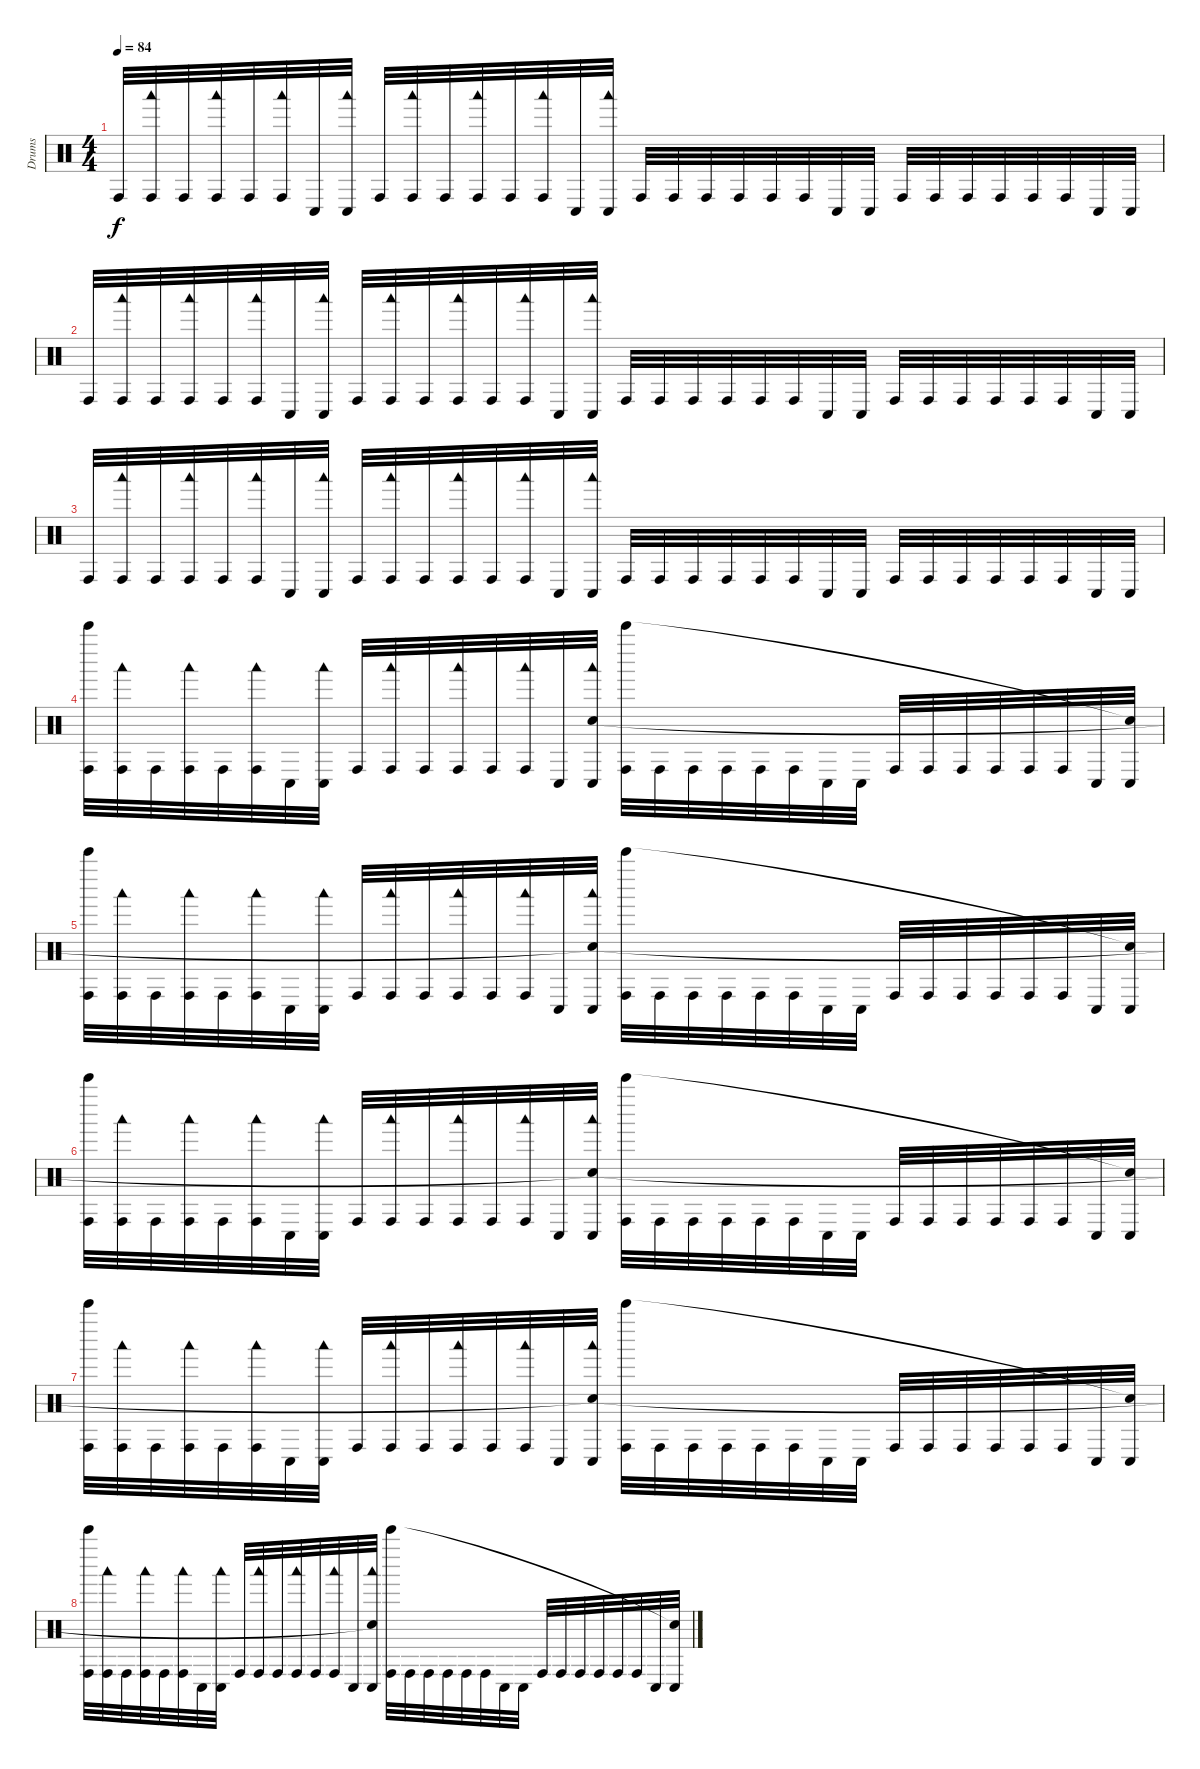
\track ("Drums" "Drums") {instrument percussion}
\staff {score}
\articulation defaults
\ts (4 4)
\tempo 84
\clef neutral
\ks c "Conga high (hit)".32{dy f volume 9}
("Conga high (hit)" "Woodblock low (hit)").32 "Conga high (hit)".32 ("Conga high (hit)" "Woodblock low (hit)").32 "Conga high (hit)".32 ("Conga high (hit)" "Woodblock low (hit)").32 "Conga low (hit)".32 ("Conga low (hit)" "Woodblock low (hit)").32 "Conga high (hit)".32 ("Conga high (hit)" "Woodblock low (hit)").32 "Conga high (hit)".32 ("Conga high (hit)" "Woodblock low (hit)").32 "Conga high (hit)".32 ("Conga high (hit)" "Woodblock low (hit)").32 "Conga low (hit)".32 ("Conga low (hit)" "Woodblock low (hit)").32 "Conga high (hit)".32 "Conga high (hit)".32 "Conga high (hit)".32 "Conga high (hit)".32 "Conga high (hit)".32 "Conga high (hit)".32 "Conga low (hit)".32 "Conga low (hit)".32 "Conga high (hit)".32 "Conga high (hit)".32 "Conga high (hit)".32 "Conga high (hit)".32 "Conga high (hit)".32 "Conga high (hit)".32 "Conga low (hit)".32 "Conga low (hit)".32 |
"Conga high (hit)".32 ("Conga high (hit)" "Woodblock low (hit)").32 "Conga high (hit)".32 ("Conga high (hit)" "Woodblock low (hit)").32 "Conga high (hit)".32 ("Conga high (hit)" "Woodblock low (hit)").32 "Conga low (hit)".32 ("Conga low (hit)" "Woodblock low (hit)").32 "Conga high (hit)".32 ("Conga high (hit)" "Woodblock low (hit)").32 "Conga high (hit)".32 ("Conga high (hit)" "Woodblock low (hit)").32 "Conga high (hit)".32 ("Conga high (hit)" "Woodblock low (hit)").32 "Conga low (hit)".32 ("Conga low (hit)" "Woodblock low (hit)").32 "Conga high (hit)".32 "Conga high (hit)".32 "Conga high (hit)".32 "Conga high (hit)".32 "Conga high (hit)".32 "Conga high (hit)".32 "Conga low (hit)".32 "Conga low (hit)".32 "Conga high (hit)".32 "Conga high (hit)".32 "Conga high (hit)".32 "Conga high (hit)".32 "Conga high (hit)".32 "Conga high (hit)".32 "Conga low (hit)".32 "Conga low (hit)".32 |
"Conga high (hit)".32 ("Conga high (hit)" "Woodblock low (hit)").32 "Conga high (hit)".32 ("Conga high (hit)" "Woodblock low (hit)").32 "Conga high (hit)".32 ("Conga high (hit)" "Woodblock low (hit)").32 "Conga low (hit)".32 ("Conga low (hit)" "Woodblock low (hit)").32 "Conga high (hit)".32 ("Conga high (hit)" "Woodblock low (hit)").32 "Conga high (hit)".32 ("Conga high (hit)" "Woodblock low (hit)").32 "Conga high (hit)".32 ("Conga high (hit)" "Woodblock low (hit)").32 "Conga low (hit)".32 ("Conga low (hit)" "Woodblock low (hit)").32 "Conga high (hit)".32 "Conga high (hit)".32 "Conga high (hit)".32 "Conga high (hit)".32 "Conga high (hit)".32 "Conga high (hit)".32 "Conga low (hit)".32 "Conga low (hit)".32 "Conga high (hit)".32 "Conga high (hit)".32 "Conga high (hit)".32 "Conga high (hit)".32 "Conga high (hit)".32 "Conga high (hit)".32 "Conga low (hit)".32 "Conga low (hit)".32 |
("Conga high (hit)" "Bell Tree (hit)").32 ("Conga high (hit)" "Woodblock low (hit)").32 "Conga high (hit)".32 ("Conga high (hit)" "Woodblock low (hit)").32 "Conga high (hit)".32 ("Conga high (hit)" "Woodblock low (hit)").32 "Conga low (hit)".32 ("Conga low (hit)" "Woodblock low (hit)").32 "Conga high (hit)".32 ("Conga high (hit)" "Woodblock low (hit)").32 "Conga high (hit)".32 ("Conga high (hit)" "Woodblock low (hit)").32 "Conga high (hit)".32 ("Conga high (hit)" "Woodblock low (hit)").32 "Conga low (hit)".32 ("Conga low (hit)" "Woodblock low (hit)" "Snare (hit)").32 ("Conga high (hit)" "Bell Tree (hit)").32 "Conga high (hit)".32 "Conga high (hit)".32 "Conga high (hit)".32 "Conga high (hit)".32 "Conga high (hit)".32 "Conga low (hit)".32 "Conga low (hit)".32 "Conga high (hit)".32 "Conga high (hit)".32 "Conga high (hit)".32 "Conga high (hit)".32 "Conga high (hit)".32 "Conga high (hit)".32 "Conga low (hit)".32 ("Conga low (hit)" "Snare (hit)"{t}).32 |
("Conga high (hit)" "Bell Tree (hit)").32 ("Conga high (hit)" "Woodblock low (hit)").32 "Conga high (hit)".32 ("Conga high (hit)" "Woodblock low (hit)").32 "Conga high (hit)".32 ("Conga high (hit)" "Woodblock low (hit)").32 "Conga low (hit)".32 ("Conga low (hit)" "Woodblock low (hit)").32 "Conga high (hit)".32 ("Conga high (hit)" "Woodblock low (hit)").32 "Conga high (hit)".32 ("Conga high (hit)" "Woodblock low (hit)").32 "Conga high (hit)".32 ("Conga high (hit)" "Woodblock low (hit)").32 "Conga low (hit)".32 ("Conga low (hit)" "Woodblock low (hit)" "Snare (hit)"{t}).32 ("Conga high (hit)" "Bell Tree (hit)").32 "Conga high (hit)".32 "Conga high (hit)".32 "Conga high (hit)".32 "Conga high (hit)".32 "Conga high (hit)".32 "Conga low (hit)".32 "Conga low (hit)".32 "Conga high (hit)".32 "Conga high (hit)".32 "Conga high (hit)".32 "Conga high (hit)".32 "Conga high (hit)".32 "Conga high (hit)".32 "Conga low (hit)".32 ("Conga low (hit)" "Snare (hit)"{t}).32 |
("Conga high (hit)" "Bell Tree (hit)").32 ("Conga high (hit)" "Woodblock low (hit)").32 "Conga high (hit)".32 ("Conga high (hit)" "Woodblock low (hit)").32 "Conga high (hit)".32 ("Conga high (hit)" "Woodblock low (hit)").32 "Conga low (hit)".32 ("Conga low (hit)" "Woodblock low (hit)").32 "Conga high (hit)".32 ("Conga high (hit)" "Woodblock low (hit)").32 "Conga high (hit)".32 ("Conga high (hit)" "Woodblock low (hit)").32 "Conga high (hit)".32 ("Conga high (hit)" "Woodblock low (hit)").32 "Conga low (hit)".32 ("Conga low (hit)" "Woodblock low (hit)" "Snare (hit)"{t}).32 ("Conga high (hit)" "Bell Tree (hit)").32 "Conga high (hit)".32 "Conga high (hit)".32 "Conga high (hit)".32 "Conga high (hit)".32 "Conga high (hit)".32 "Conga low (hit)".32 "Conga low (hit)".32 "Conga high (hit)".32 "Conga high (hit)".32 "Conga high (hit)".32 "Conga high (hit)".32 "Conga high (hit)".32 "Conga high (hit)".32 "Conga low (hit)".32 ("Conga low (hit)" "Snare (hit)"{t}).32 |
("Conga high (hit)" "Bell Tree (hit)").32 ("Conga high (hit)" "Woodblock low (hit)").32 "Conga high (hit)".32 ("Conga high (hit)" "Woodblock low (hit)").32 "Conga high (hit)".32 ("Conga high (hit)" "Woodblock low (hit)").32 "Conga low (hit)".32 ("Conga low (hit)" "Woodblock low (hit)").32 "Conga high (hit)".32 ("Conga high (hit)" "Woodblock low (hit)").32 "Conga high (hit)".32 ("Conga high (hit)" "Woodblock low (hit)").32 "Conga high (hit)".32 ("Conga high (hit)" "Woodblock low (hit)").32 "Conga low (hit)".32 ("Conga low (hit)" "Woodblock low (hit)" "Snare (hit)"{t}).32 ("Conga high (hit)" "Bell Tree (hit)").32 "Conga high (hit)".32 "Conga high (hit)".32 "Conga high (hit)".32 "Conga high (hit)".32 "Conga high (hit)".32 "Conga low (hit)".32 "Conga low (hit)".32 "Conga high (hit)".32 "Conga high (hit)".32 "Conga high (hit)".32 "Conga high (hit)".32 "Conga high (hit)".32 "Conga high (hit)".32 "Conga low (hit)".32 ("Conga low (hit)" "Snare (hit)"{t}).32 |
("Conga high (hit)" "Bell Tree (hit)").32 ("Conga high (hit)" "Woodblock low (hit)").32 "Conga high (hit)".32 ("Conga high (hit)" "Woodblock low (hit)").32 "Conga high (hit)".32 ("Conga high (hit)" "Woodblock low (hit)").32 "Conga low (hit)".32 ("Conga low (hit)" "Woodblock low (hit)").32 "Conga high (hit)".32 ("Conga high (hit)" "Woodblock low (hit)").32 "Conga high (hit)".32 ("Conga high (hit)" "Woodblock low (hit)").32 "Conga high (hit)".32 ("Conga high (hit)" "Woodblock low (hit)").32 "Conga low (hit)".32 ("Conga low (hit)" "Woodblock low (hit)" "Snare (hit)"{t}).32 ("Conga high (hit)" "Bell Tree (hit)").32 "Conga high (hit)".32 "Conga high (hit)".32 "Conga high (hit)".32 "Conga high (hit)".32 "Conga high (hit)".32 "Conga low (hit)".32 "Conga low (hit)".32 "Conga high (hit)".32 "Conga high (hit)".32 "Conga high (hit)".32 "Conga high (hit)".32 "Conga high (hit)".32 "Conga high (hit)".32 "Conga low (hit)".32 ("Conga low (hit)" "Snare (hit)"{t}).32
